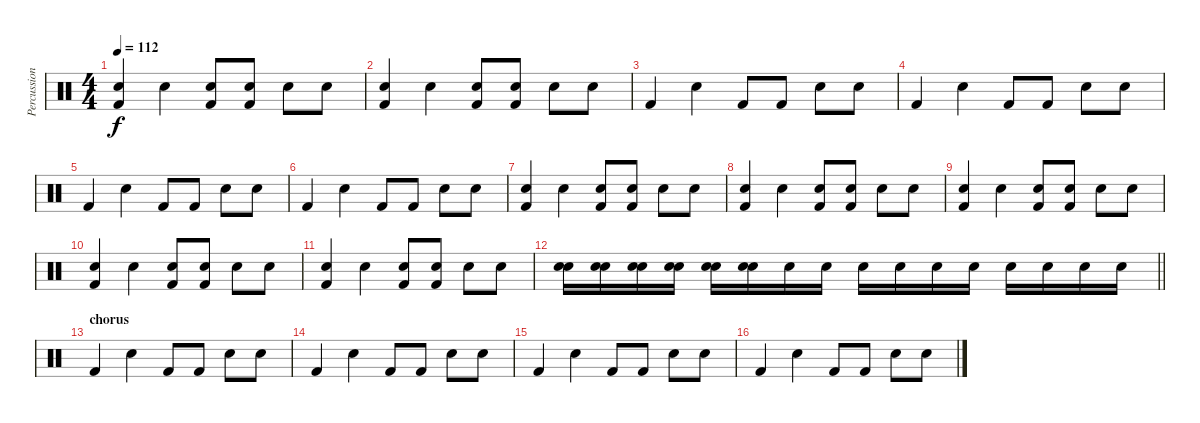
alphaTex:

\track ("Percussions" "Percussion") {instrument percussion}
\staff {score}
\articulation defaults
\ts (4 4)
\tempo 112
\clef neutral
\ks c
("Electric Snare (hit)" "Kick (hit) 2").4{dy f} "Electric Snare (hit)".4 ("Electric Snare (hit)" "Kick (hit) 2").8 ("Electric Snare (hit)" "Kick (hit) 2").8 "Electric Snare (hit)".8 "Electric Snare (hit)".8 |
("Electric Snare (hit)" "Kick (hit) 2").4 "Electric Snare (hit)".4 ("Electric Snare (hit)" "Kick (hit) 2").8 ("Electric Snare (hit)" "Kick (hit) 2").8 "Electric Snare (hit)".8 "Electric Snare (hit)".8 |
"Kick (hit) 2".4 "Electric Snare (hit)".4 "Kick (hit) 2".8 "Kick (hit) 2".8 "Electric Snare (hit)".8 "Electric Snare (hit)".8 |
"Kick (hit) 2".4 "Electric Snare (hit)".4 "Kick (hit) 2".8 "Kick (hit) 2".8 "Electric Snare (hit)".8 "Electric Snare (hit)".8 |
"Kick (hit) 2".4 "Electric Snare (hit)".4 "Kick (hit) 2".8 "Kick (hit) 2".8 "Electric Snare (hit)".8 "Electric Snare (hit)".8 |
"Kick (hit) 2".4 "Electric Snare (hit)".4 "Kick (hit) 2".8 "Kick (hit) 2".8 "Electric Snare (hit)".8 "Electric Snare (hit)".8 |
("Snare (hit)" "Kick (hit) 2").4 "Electric Snare (hit)".4 ("Snare (hit)" "Kick (hit) 2").8 ("Snare (hit)" "Kick (hit) 2").8 "Electric Snare (hit)".8 "Electric Snare (hit)".8 |
("Snare (hit)" "Kick (hit) 2").4 "Electric Snare (hit)".4 ("Snare (hit)" "Kick (hit) 2").8 ("Snare (hit)" "Kick (hit) 2").8 "Electric Snare (hit)".8 "Electric Snare (hit)".8 |
("Snare (hit)" "Kick (hit) 2").4 "Electric Snare (hit)".4 ("Snare (hit)" "Kick (hit) 2").8 ("Snare (hit)" "Kick (hit) 2").8 "Electric Snare (hit)".8 "Electric Snare (hit)".8 |
("Snare (hit)" "Kick (hit) 2").4 "Electric Snare (hit)".4 ("Snare (hit)" "Kick (hit) 2").8 ("Snare (hit)" "Kick (hit) 2").8 "Electric Snare (hit)".8 "Electric Snare (hit)".8 |
("Snare (hit)" "Kick (hit) 2").4 "Electric Snare (hit)".4 ("Snare (hit)" "Kick (hit) 2").8 ("Snare (hit)" "Kick (hit) 2").8 "Electric Snare (hit)".8 "Electric Snare (hit)".8 |
\barLineRight lightlight
("Snare (hit)" "Electric Snare (hit)").16 ("Electric Snare (hit)" "Electric Snare (hit)").16 ("Snare (hit)" "Electric Snare (hit)").16 ("Snare (hit)" "Electric Snare (hit)").16 ("Electric Snare (hit)" "Electric Snare (hit)").16 ("Electric Snare (hit)" "Electric Snare (hit)").16 "Electric Snare (hit)".16 "Electric Snare (hit)".16 "Electric Snare (hit)".16 "Electric Snare (hit)".16 "Electric Snare (hit)".16 "Electric Snare (hit)".16 "Electric Snare (hit)".16 "Electric Snare (hit)".16 "Electric Snare (hit)".16 "Electric Snare (hit)".16 |
\section ("" "chorus")
"Kick (hit) 2".4 "Electric Snare (hit)".4 "Kick (hit) 2".8 "Kick (hit) 2".8 "Electric Snare (hit)".8 "Electric Snare (hit)".8 |
"Kick (hit) 2".4 "Electric Snare (hit)".4 "Kick (hit) 2".8 "Kick (hit) 2".8 "Electric Snare (hit)".8 "Electric Snare (hit)".8 |
"Kick (hit) 2".4 "Electric Snare (hit)".4 "Kick (hit) 2".8 "Kick (hit) 2".8 "Electric Snare (hit)".8 "Electric Snare (hit)".8 |
"Kick (hit) 2".4 "Electric Snare (hit)".4 "Kick (hit) 2".8 "Kick (hit) 2".8 "Electric Snare (hit)".8 "Electric Snare (hit)".8
